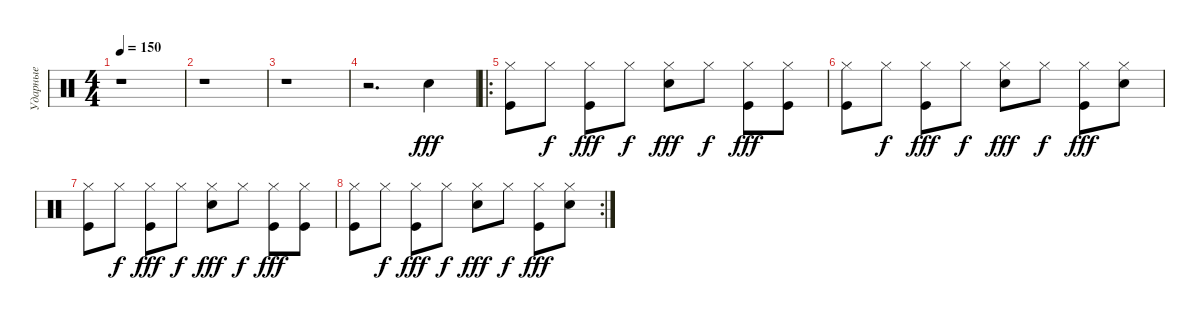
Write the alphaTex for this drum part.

\track ("Ударные" "Ударные") {instrument percussion}
\staff {score}
\articulation defaults
\ts (4 4)
\tempo 150
\clef neutral
\ks c
r.1{dy fff} |
r.1 |
r.1 |
r.2{d} "Electric Snare (hit)".4 |
\ro
("Hi-Hat (closed)" "Kick (hit)").8 "Hi-Hat (closed)".8{dy f} ("Hi-Hat (closed)" "Kick (hit)").8{dy fff} "Hi-Hat (closed)".8{dy f} ("Hi-Hat (closed)" "Electric Snare (hit)").8{dy fff} "Hi-Hat (closed)".8{dy f} ("Hi-Hat (closed)" "Kick (hit)").8{dy fff} ("Hi-Hat (closed)" "Kick (hit)").8 |
("Hi-Hat (closed)" "Kick (hit)").8 "Hi-Hat (closed)".8{dy f} ("Hi-Hat (closed)" "Kick (hit)").8{dy fff} "Hi-Hat (closed)".8{dy f} ("Hi-Hat (closed)" "Electric Snare (hit)").8{dy fff} "Hi-Hat (closed)".8{dy f} ("Hi-Hat (closed)" "Kick (hit)").8{dy fff} ("Hi-Hat (closed)" "Electric Snare (hit)").8 |
("Hi-Hat (closed)" "Kick (hit)").8 "Hi-Hat (closed)".8{dy f} ("Hi-Hat (closed)" "Kick (hit)").8{dy fff} "Hi-Hat (closed)".8{dy f} ("Hi-Hat (closed)" "Electric Snare (hit)").8{dy fff} "Hi-Hat (closed)".8{dy f} ("Hi-Hat (closed)" "Kick (hit)").8{dy fff} ("Hi-Hat (closed)" "Kick (hit)").8 |
\rc 2
("Hi-Hat (closed)" "Kick (hit)").8 "Hi-Hat (closed)".8{dy f} ("Hi-Hat (closed)" "Kick (hit)").8{dy fff} "Hi-Hat (closed)".8{dy f} ("Hi-Hat (closed)" "Electric Snare (hit)").8{dy fff} "Hi-Hat (closed)".8{dy f} ("Hi-Hat (closed)" "Kick (hit)").8{dy fff} ("Hi-Hat (closed)" "Electric Snare (hit)").8
